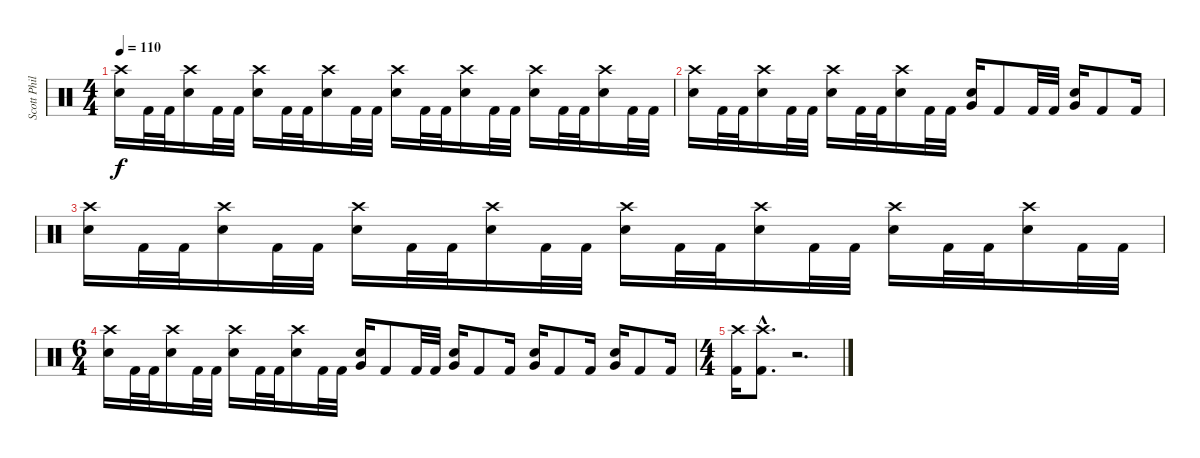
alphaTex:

\track ("Scott Phillips" "Scott Phil") {instrument percussion}
\staff {score}
\articulation defaults
\ts (4 4)
\tempo 110
\clef neutral
\ks c
("Crash high (hit)" "Snare (hit) 2").16{dy f} "Kick (hit) 2".32 "Kick (hit) 2".32 ("Crash high (hit)" "Snare (hit) 2").16 "Kick (hit) 2".32 "Kick (hit) 2".32 ("Crash high (hit)" "Snare (hit) 2").16 "Kick (hit) 2".32 "Kick (hit) 2".32 ("Crash high (hit)" "Snare (hit) 2").16 "Kick (hit) 2".32 "Kick (hit) 2".32 ("Crash high (hit)" "Snare (hit) 2").16 "Kick (hit) 2".32 "Kick (hit) 2".32 ("Crash high (hit)" "Snare (hit) 2").16 "Kick (hit) 2".32 "Kick (hit) 2".32 ("Crash high (hit)" "Snare (hit) 2").16 "Kick (hit) 2".32 "Kick (hit) 2".32 ("Crash high (hit)" "Snare (hit) 2").16 "Kick (hit) 2".32 "Kick (hit) 2".32 |
("Crash high (hit)" "Snare (hit) 2").16 "Kick (hit) 2".32 "Kick (hit) 2".32 ("Crash high (hit)" "Snare (hit) 2").16 "Kick (hit) 2".32 "Kick (hit) 2".32 ("Crash high (hit)" "Snare (hit) 2").16 "Kick (hit) 2".32 "Kick (hit) 2".32 ("Crash high (hit)" "Snare (hit) 2").16 "Kick (hit) 2".32 "Kick (hit) 2".32 ("Very Low Tom (hit)" "Snare (hit) 2").16 "Kick (hit) 2".8 "Kick (hit) 2".32 "Kick (hit) 2".32 ("Very Low Tom (hit)" "Snare (hit) 2").16 "Kick (hit) 2".8 "Kick (hit) 2".16 |
("Crash high (hit)" "Snare (hit) 2").16 "Kick (hit) 2".32 "Kick (hit) 2".32 ("Crash high (hit)" "Snare (hit) 2").16 "Kick (hit) 2".32 "Kick (hit) 2".32 ("Crash high (hit)" "Snare (hit) 2").16 "Kick (hit) 2".32 "Kick (hit) 2".32 ("Crash high (hit)" "Snare (hit) 2").16 "Kick (hit) 2".32 "Kick (hit) 2".32 ("Crash high (hit)" "Snare (hit) 2").16 "Kick (hit) 2".32 "Kick (hit) 2".32 ("Crash high (hit)" "Snare (hit) 2").16 "Kick (hit) 2".32 "Kick (hit) 2".32 ("Crash high (hit)" "Snare (hit) 2").16 "Kick (hit) 2".32 "Kick (hit) 2".32 ("Crash high (hit)" "Snare (hit) 2").16 "Kick (hit) 2".32 "Kick (hit) 2".32 |
\ts (6 4)
("Crash high (hit)" "Snare (hit) 2").16 "Kick (hit) 2".32 "Kick (hit) 2".32 ("Crash high (hit)" "Snare (hit) 2").16 "Kick (hit) 2".32 "Kick (hit) 2".32 ("Crash high (hit)" "Snare (hit) 2").16 "Kick (hit) 2".32 "Kick (hit) 2".32 ("Crash high (hit)" "Snare (hit) 2").16 "Kick (hit) 2".32 "Kick (hit) 2".32 ("Very Low Tom (hit)" "Snare (hit) 2").16 "Kick (hit) 2".8 "Kick (hit) 2".32 "Kick (hit) 2".32 ("Very Low Tom (hit)" "Snare (hit) 2").16 "Kick (hit) 2".8 "Kick (hit) 2".16 ("Very Low Tom (hit)" "Snare (hit) 2").16 "Kick (hit) 2".8 "Kick (hit) 2".16 ("Very Low Tom (hit)" "Snare (hit) 2").16 "Kick (hit) 2".8 "Kick (hit) 2".16 |
\ts (4 4)
("Crash high (hit)" "Kick (hit) 2").16 ("Crash high (hit)"{hac} "Kick (hit) 2"{hac}).8{d} r.2{d}
